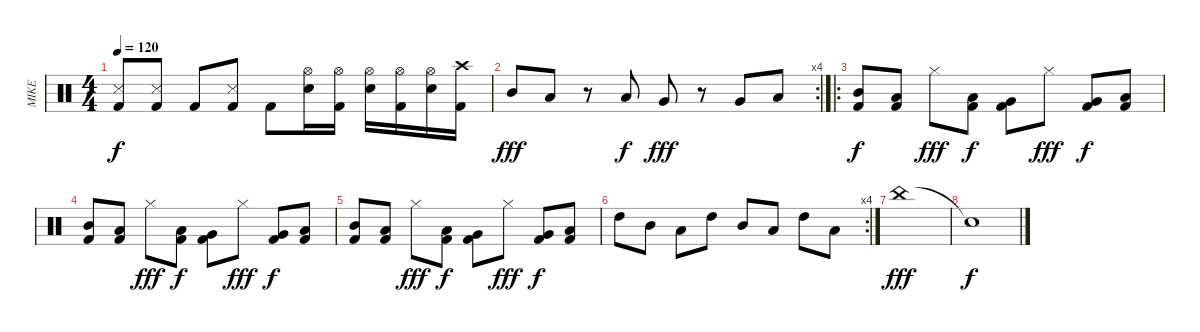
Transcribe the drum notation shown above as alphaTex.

\track ("MIKE" "MIKE") {instrument percussion}
\staff {score}
\articulation defaults
\ts (4 4)
\tempo 120
\clef neutral
\ks c
("Snare (side stick) 3" "Kick (hit) 2").8{dy f} ("Snare (side stick) 3" "Kick (hit) 2").8 "Kick (hit) 2"{x}.8 ("Snare (side stick) 3" "Kick (hit) 2").8 "Kick (hit) 2"{x}.8 ("Hi-Hat (open)" "Electric Snare (hit)").16 ("Hi-Hat (open)" "Kick (hit) 2").16 ("Hi-Hat (open)" "Electric Snare (hit)").16 ("Hi-Hat (open)" "Kick (hit) 2").16 ("Hi-Hat (open)" "Electric Snare (hit)").16 ("Crash high (hit)" "Kick (hit) 2").16 |
\rc 4 "Mid Tom (hit)".8{dy fff} "Low Tom (hit)".8
r.8 "Low Tom (hit)".8{dy f} "Very Low Tom (hit)".8{dy fff} r.8 "Very Low Tom (hit)".8 "Low Floor Tom (hit)".8 |
\ro
("Kick (hit) 2" "Mid Tom (hit)").8{dy f} ("Kick (hit) 2" "Low Tom (hit)").8 "Hi-Hat (closed)".8{dy fff} ("Kick (hit) 2" "Low Tom (hit)").8{dy f} ("Kick (hit) 2" "Very Low Tom (hit)").8 "Hi-Hat (closed)".8{dy fff} ("Kick (hit) 2" "Very Low Tom (hit)").8{dy f} ("Kick (hit) 2" "Low Floor Tom (hit)").8 |
("Kick (hit) 2" "Mid Tom (hit)").8 ("Kick (hit) 2" "Low Tom (hit)").8 "Hi-Hat (closed)".8{dy fff} ("Kick (hit) 2" "Low Tom (hit)").8{dy f} ("Kick (hit) 2" "Very Low Tom (hit)").8 "Hi-Hat (closed)".8{dy fff} ("Kick (hit) 2" "Very Low Tom (hit)").8{dy f} ("Kick (hit) 2" "Low Floor Tom (hit)").8 |
("Kick (hit) 2" "Mid Tom (hit)").8 ("Kick (hit) 2" "Low Tom (hit)").8 "Hi-Hat (closed)".8{dy fff} ("Kick (hit) 2" "Low Tom (hit)").8{dy f} ("Kick (hit) 2" "Very Low Tom (hit)").8 "Hi-Hat (closed)".8{dy fff} ("Kick (hit) 2" "Very Low Tom (hit)").8{dy f} ("Kick (hit) 2" "Low Floor Tom (hit)").8 |
\rc 4 "High Tom (hit)".8 "Mid Tom (hit)".8 "Low Tom (hit)".8 "High Tom (hit)".8 "Mid Tom (hit)".8 "Low Tom (hit)".8 "High Tom (hit)".8 "Low Tom (hit)".8
|
"China (hit)".1{dy fff} |
"Snare (hit)"{t}.1{dy f}
